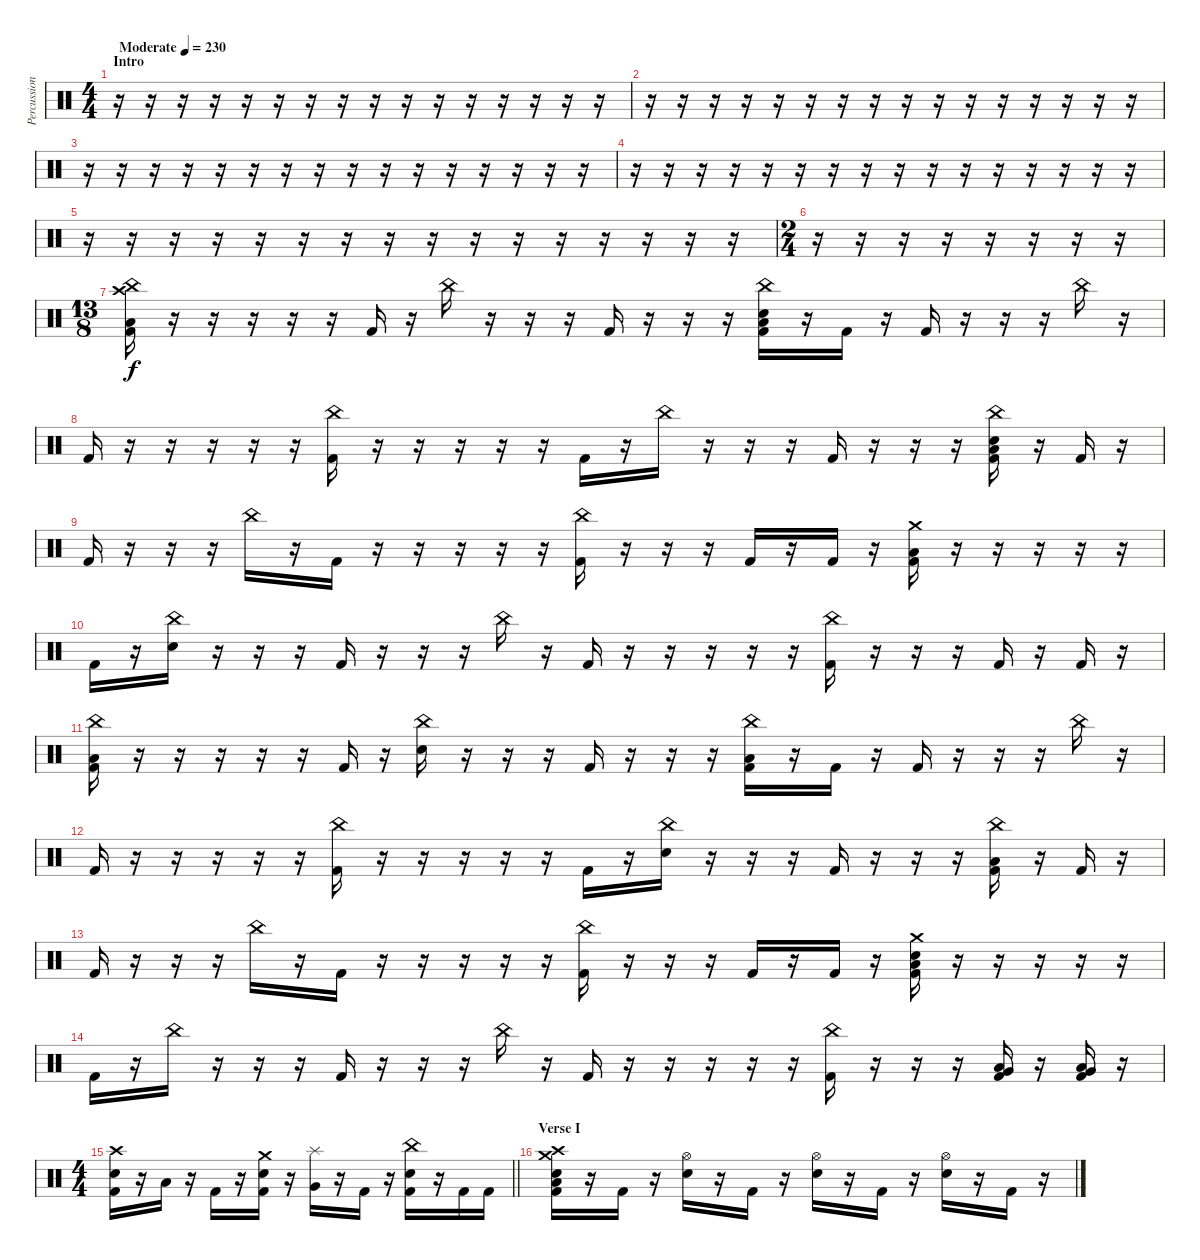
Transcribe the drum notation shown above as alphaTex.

\track ("Percussion" "Percussion") {instrument percussion}
\staff {score}
\articulation defaults
\ts (4 4)
\section ("" "Intro")
\tempo (230 "Moderate")
\clef neutral
\ks c
r.16{dy f} r.16 r.16 r.16 r.16 r.16 r.16 r.16 r.16 r.16 r.16 r.16 r.16 r.16 r.16 r.16 |
r.16 r.16 r.16 r.16 r.16 r.16 r.16 r.16 r.16 r.16 r.16 r.16 r.16 r.16 r.16 r.16 |
r.16 r.16 r.16 r.16 r.16 r.16 r.16 r.16 r.16 r.16 r.16 r.16 r.16 r.16 r.16 r.16 |
r.16 r.16 r.16 r.16 r.16 r.16 r.16 r.16 r.16 r.16 r.16 r.16 r.16 r.16 r.16 r.16 |
r.16 r.16 r.16 r.16 r.16 r.16 r.16 r.16 r.16 r.16 r.16 r.16 r.16 r.16 r.16 r.16 |
\ts (2 4)
r.16 r.16 r.16 r.16 r.16 r.16 r.16 r.16 |
\ts (13 8)
("China (hit)" "Crash high (hit)" "Low Floor Tom (hit)" "Kick (hit) 2").16 r.16 r.16 r.16 r.16 r.16 "Kick (hit) 2".16 r.16 "China (hit)".16 r.16 r.16 r.16 "Kick (hit) 2".16 r.16 r.16 r.16 ("China (hit)" "Electric Snare (hit)" "Low Floor Tom (hit)" "Kick (hit) 2").16 r.16 "Kick (hit) 2".16 r.16 "Kick (hit) 2".16 r.16 r.16 r.16 "China (hit)".16 r.16 |
"Kick (hit) 2".16 r.16 r.16 r.16 r.16 r.16 ("China (hit)" "Kick (hit) 2").16 r.16 r.16 r.16 r.16 r.16 "Kick (hit) 2".16 r.16 "China (hit)".16 r.16 r.16 r.16 "Kick (hit) 2".16 r.16 r.16 r.16 ("China (hit)" "Electric Snare (hit)" "Low Floor Tom (hit)" "Kick (hit) 2").16 r.16 "Kick (hit) 2".16 r.16 |
"Kick (hit) 2".16 r.16 r.16 r.16 "China (hit)".16 r.16 "Kick (hit) 2".16 r.16 r.16 r.16 r.16 r.16 ("China (hit)" "Kick (hit) 2").16 r.16 r.16 r.16 "Kick (hit) 2".16 r.16 "Kick (hit) 2".16 r.16 ("Crash medium (hit)" "Low Floor Tom (hit)" "Kick (hit) 2").16 r.16 r.16 r.16 r.16 r.16 |
"Kick (hit) 2".16 r.16 ("China (hit)" "Electric Snare (hit)").16 r.16 r.16 r.16 "Kick (hit) 2".16 r.16 r.16 r.16 "China (hit)".16 r.16 "Kick (hit) 2".16 r.16 r.16 r.16 r.16 r.16 ("China (hit)" "Kick (hit) 2").16 r.16 r.16 r.16 "Kick (hit) 2".16 r.16 "Kick (hit) 2".16 r.16 |
("China (hit)" "Low Floor Tom (hit)" "Kick (hit) 2").16 r.16 r.16 r.16 r.16 r.16 "Kick (hit) 2".16 r.16 ("China (hit)" "Electric Snare (hit)").16 r.16 r.16 r.16 "Kick (hit) 2".16 r.16 r.16 r.16 ("China (hit)" "Low Floor Tom (hit)" "Kick (hit) 2").16 r.16 "Kick (hit) 2".16 r.16 "Kick (hit) 2".16 r.16 r.16 r.16 "China (hit)".16 r.16 |
"Kick (hit) 2".16 r.16 r.16 r.16 r.16 r.16 ("China (hit)" "Kick (hit) 2").16 r.16 r.16 r.16 r.16 r.16 "Kick (hit) 2".16 r.16 ("China (hit)" "Electric Snare (hit)").16 r.16 r.16 r.16 "Kick (hit) 2".16 r.16 r.16 r.16 ("China (hit)" "Low Floor Tom (hit)" "Kick (hit) 2").16 r.16 "Kick (hit) 2".16 r.16 |
"Kick (hit) 2".16 r.16 r.16 r.16 "China (hit)".16 r.16 "Kick (hit) 2".16 r.16 r.16 r.16 r.16 r.16 ("China (hit)" "Kick (hit) 2").16 r.16 r.16 r.16 "Kick (hit) 2".16 r.16 "Kick (hit) 2".16 r.16 ("Crash medium (hit)" "Electric Snare (hit)" "Low Floor Tom (hit)" "Kick (hit) 2").16 r.16 r.16 r.16 r.16 r.16 |
"Kick (hit) 2".16 r.16 "China (hit)".16 r.16 r.16 r.16 "Kick (hit) 2".16 r.16 r.16 r.16 "China (hit)".16 r.16 "Kick (hit) 2".16 r.16 r.16 r.16 r.16 r.16 ("China (hit)" "Kick (hit) 2").16 r.16 r.16 r.16 ("Very Low Tom (hit)" "Low Floor Tom (hit)" "Kick (hit) 2").16 r.16 ("Very Low Tom (hit)" "Low Floor Tom (hit)" "Kick (hit) 2").16 r.16 |
\ts (4 4)
\barLineRight lightlight
("Crash high (hit)" "Electric Snare (hit)" "Kick (hit) 2").16 r.16 "Low Tom (hit)".16 r.16 "Kick (hit) 2".16 r.16 ("Crash medium (hit)" "Electric Snare (hit)" "Kick (hit) 2").16 r.16 ("Splash (hit)" "Very Low Tom (hit)").16 r.16 "Kick (hit) 2".16 r.16 ("China (hit)" "Electric Snare (hit)" "Kick (hit) 2").16 r.16 "Kick (hit) 2".16 "Kick (hit) 2".16 |
\section ("" "Verse I")
("Crash high (hit)" "Crash medium (hit)" "Electric Snare (hit)" "Low Floor Tom (hit)" "Kick (hit) 2").16 r.16 "Kick (hit) 2".16 r.16 ("Hi-Hat (open)" "Electric Snare (hit)").16 r.16 "Kick (hit) 2".16 r.16 ("Hi-Hat (open)" "Electric Snare (hit)").16 r.16 "Kick (hit) 2".16 r.16 ("Hi-Hat (open)" "Electric Snare (hit)").16 r.16 "Kick (hit) 2".16 r.16
